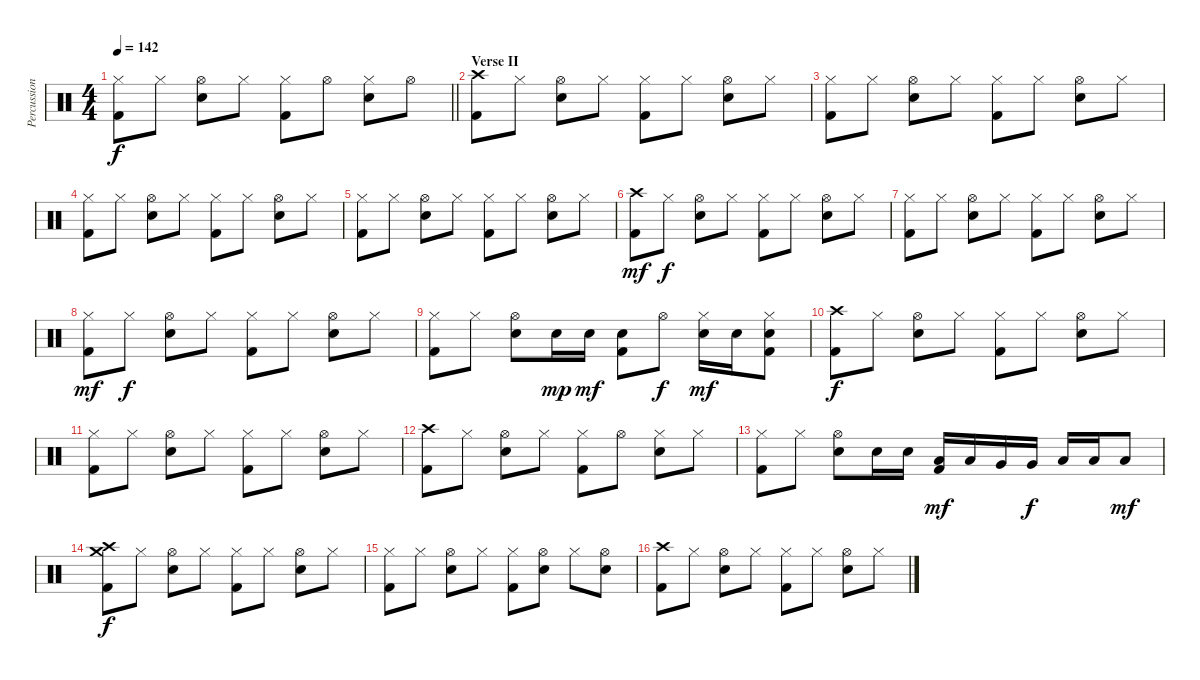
\track ("Percussion" "Percussion") {instrument percussion}
\staff {score}
\articulation defaults
\ts (4 4)
\tempo 142
\clef neutral
\barLineRight lightlight
\ks c
("Kick (hit) 2" "Hi-Hat (closed)").8{dy f} "Hi-Hat (closed)".8 ("Snare (hit) 2" "Hi-Hat (open)").8 "Hi-Hat (closed)".8 ("Kick (hit) 2" "Hi-Hat (closed)").8 "Hi-Hat (open)".8 ("Snare (hit) 2" "Hi-Hat (closed)").8 "Hi-Hat (open)".8 |
\section ("" "Verse II")
("Kick (hit) 2" "Crash high (hit)").8 "Hi-Hat (closed)".8 ("Snare (hit) 2" "Hi-Hat (open)").8 "Hi-Hat (closed)".8 ("Kick (hit) 2" "Hi-Hat (closed)").8 "Hi-Hat (closed)".8 ("Snare (hit) 2" "Hi-Hat (open)").8 "Hi-Hat (closed)".8 |
("Kick (hit) 2" "Hi-Hat (closed)").8 "Hi-Hat (closed)".8 ("Snare (hit) 2" "Hi-Hat (open)").8 "Hi-Hat (closed)".8 ("Kick (hit) 2" "Hi-Hat (closed)").8 "Hi-Hat (closed)".8 ("Snare (hit) 2" "Hi-Hat (open)").8 "Hi-Hat (closed)".8 |
("Kick (hit) 2" "Hi-Hat (closed)").8 "Hi-Hat (closed)".8 ("Snare (hit) 2" "Hi-Hat (open)").8 "Hi-Hat (closed)".8 ("Kick (hit) 2" "Hi-Hat (closed)").8 "Hi-Hat (closed)".8 ("Snare (hit) 2" "Hi-Hat (open)").8 "Hi-Hat (closed)".8 |
("Kick (hit) 2" "Hi-Hat (closed)").8 "Hi-Hat (closed)".8 ("Snare (hit) 2" "Hi-Hat (open)").8 "Hi-Hat (closed)".8 ("Kick (hit) 2" "Hi-Hat (closed)").8 "Hi-Hat (closed)".8 ("Snare (hit) 2" "Hi-Hat (open)").8 "Hi-Hat (closed)".8 |
("Kick (hit) 2" "Crash high (hit)").8{dy mf} "Hi-Hat (closed)".8{dy f} ("Snare (hit) 2" "Hi-Hat (open)").8 "Hi-Hat (closed)".8 ("Kick (hit) 2" "Hi-Hat (closed)").8 "Hi-Hat (closed)".8 ("Snare (hit) 2" "Hi-Hat (open)").8 "Hi-Hat (closed)".8 |
("Kick (hit) 2" "Hi-Hat (closed)").8 "Hi-Hat (closed)".8 ("Snare (hit) 2" "Hi-Hat (open)").8 "Hi-Hat (closed)".8 ("Kick (hit) 2" "Hi-Hat (closed)").8 "Hi-Hat (closed)".8 ("Snare (hit) 2" "Hi-Hat (open)").8 "Hi-Hat (closed)".8 |
("Kick (hit) 2" "Hi-Hat (closed)").8{dy mf} "Hi-Hat (closed)".8{dy f} ("Snare (hit) 2" "Hi-Hat (open)").8 "Hi-Hat (closed)".8 ("Kick (hit) 2" "Hi-Hat (closed)").8 "Hi-Hat (closed)".8 ("Snare (hit) 2" "Hi-Hat (open)").8 "Hi-Hat (closed)".8 |
("Kick (hit) 2" "Hi-Hat (closed)").8 "Hi-Hat (closed)".8 ("Snare (hit) 2" "Hi-Hat (open)").8 "Snare (hit) 2".16{dy mp} "Snare (hit) 2".16{dy mf} ("Kick (hit) 2" "Snare (hit) 2").8 "Hi-Hat (open)".8{dy f} ("Snare (hit) 2" "Hi-Hat (closed)").16{dy mf} "Snare (hit) 2".16 ("Kick (hit) 2" "Snare (hit) 2" "Hi-Hat (closed)").8 |
("Kick (hit) 2" "Crash high (hit)").8{dy f} "Hi-Hat (closed)".8 ("Snare (hit) 2" "Hi-Hat (open)").8 "Hi-Hat (closed)".8 ("Kick (hit) 2" "Hi-Hat (closed)").8 "Hi-Hat (closed)".8 ("Snare (hit) 2" "Hi-Hat (open)").8 "Hi-Hat (closed)".8 |
("Kick (hit) 2" "Hi-Hat (closed)").8 "Hi-Hat (closed)".8 ("Snare (hit) 2" "Hi-Hat (open)").8 "Hi-Hat (closed)".8 ("Kick (hit) 2" "Hi-Hat (closed)").8 "Hi-Hat (closed)".8 ("Snare (hit) 2" "Hi-Hat (open)").8 "Hi-Hat (closed)".8 |
("Kick (hit) 2" "Crash high (hit)").8 "Hi-Hat (closed)".8 ("Snare (hit) 2" "Hi-Hat (open)").8 "Hi-Hat (closed)".8 ("Kick (hit) 2" "Hi-Hat (closed)").8 "Hi-Hat (open)".8 ("Snare (hit) 2" "Hi-Hat (closed)").8 "Hi-Hat (closed)".8 |
("Kick (hit) 2" "Hi-Hat (closed)").8 "Hi-Hat (closed)".8 ("Snare (hit) 2" "Hi-Hat (open)").8 "Snare (hit) 2".16 "Snare (hit) 2".16 ("Kick (hit) 2" "Low Tom (hit)").16{dy mf} "Low Tom (hit)".16 "Very Low Tom (hit)".16 "Very Low Tom (hit)".16{dy f} "Low Floor Tom (hit)".16 "Low Floor Tom (hit)".16 "Low Floor Tom (hit)".8{dy mf} |
("Kick (hit) 2" "Crash high (hit)" "Crash medium (hit)").8{dy f} "Hi-Hat (closed)".8 ("Snare (hit) 2" "Hi-Hat (open)").8 "Hi-Hat (closed)".8 ("Kick (hit) 2" "Hi-Hat (closed)").8 "Hi-Hat (closed)".8 ("Snare (hit) 2" "Hi-Hat (open)").8 "Hi-Hat (closed)".8 |
("Kick (hit) 2" "Hi-Hat (closed)").8 "Hi-Hat (closed)".8 ("Snare (hit) 2" "Hi-Hat (open)").8 "Hi-Hat (closed)".8 ("Kick (hit) 2" "Hi-Hat (closed)").8 ("Snare (hit) 2" "Hi-Hat (open)").8 "Hi-Hat (closed)".8 ("Snare (hit) 2" "Hi-Hat (open)").8 |
("Kick (hit) 2" "Crash high (hit)").8 "Hi-Hat (closed)".8 ("Snare (hit) 2" "Hi-Hat (open)").8 "Hi-Hat (closed)".8 ("Kick (hit) 2" "Hi-Hat (closed)").8 "Hi-Hat (closed)".8 ("Snare (hit) 2" "Hi-Hat (open)").8 "Hi-Hat (closed)".8
